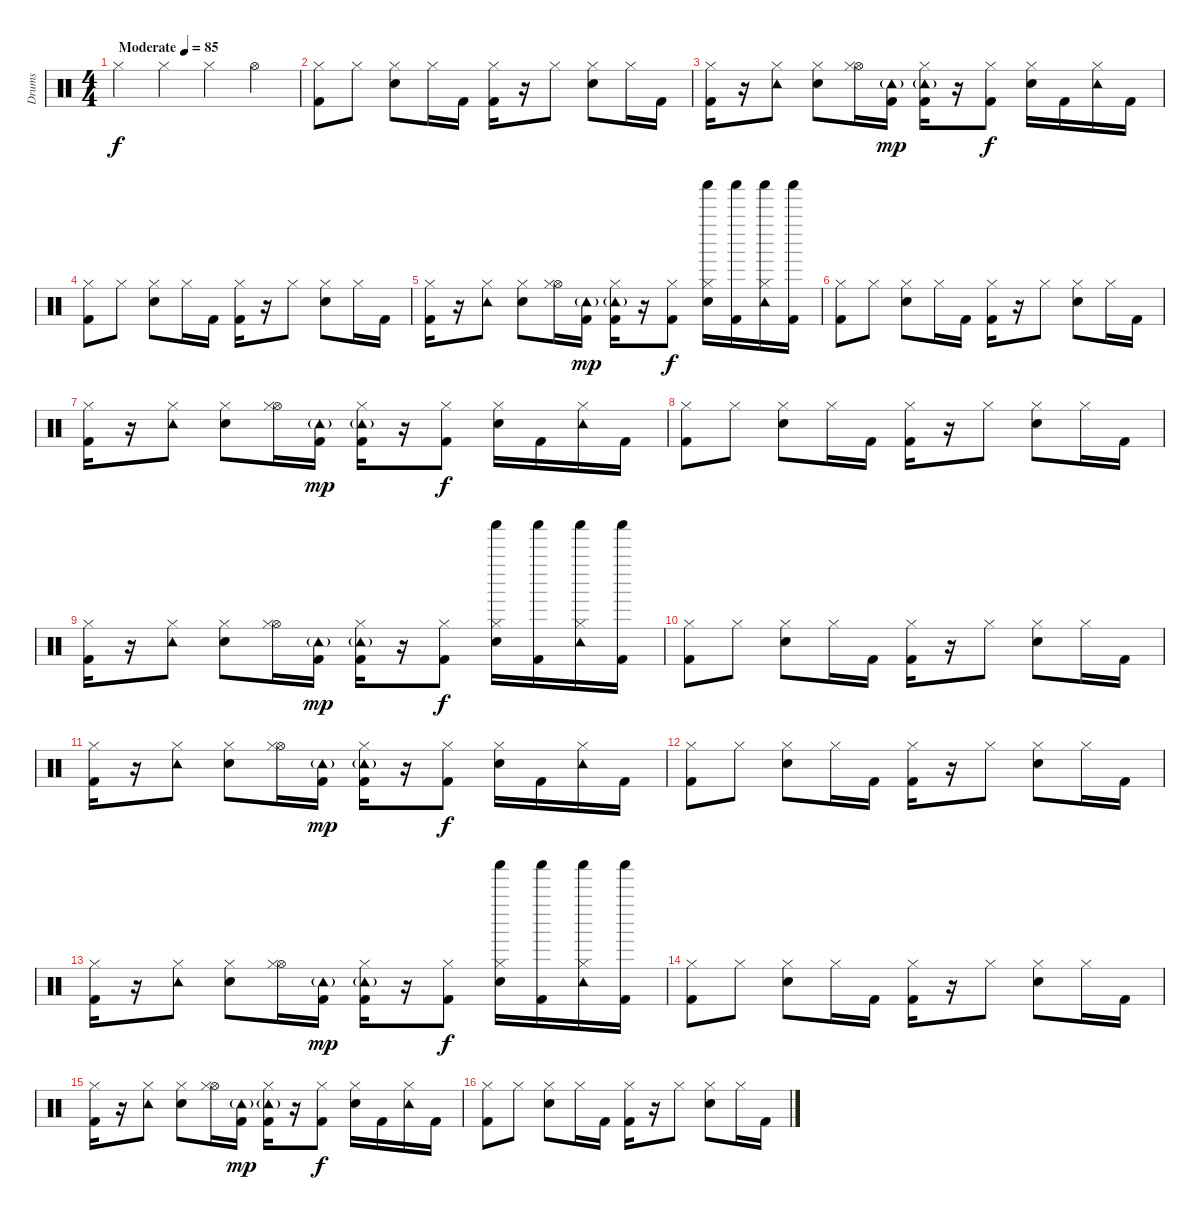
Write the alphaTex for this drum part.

\track ("Drums" "Drums") {instrument percussion}
\staff {score}
\articulation defaults
\ts (4 4)
\tempo (85 "Moderate")
\clef neutral
\ks c "Hi-Hat (closed)".4{dy f} "Hi-Hat (closed)".4 "Hi-Hat (closed)".4 "Hi-Hat (open)".4
|
("Hi-Hat (closed)" "Kick (hit) 2").8 "Hi-Hat (closed)".8 ("Hi-Hat (closed)" "Snare (hit) 2").8 "Hi-Hat (closed)".16 "Kick (hit) 2".16 ("Hi-Hat (closed)" "Kick (hit) 2").16 r.16 "Hi-Hat (closed)".8 ("Hi-Hat (closed)" "Snare (hit) 2").8 "Hi-Hat (closed)".16 "Kick (hit) 2".16 |
("Hi-Hat (closed)" "Kick (hit) 2").16 r.16 ("Tambourine (hit)" "Hi-Hat (closed)").8 ("Hi-Hat (closed)" "Snare (hit) 2").8 ("Hi-Hat (open)" "Hi-Hat (closed)").16 ("Tambourine (hit)"{g} "Kick (hit) 2").16{dy mp} ("Tambourine (hit)"{g} "Hi-Hat (closed)" "Kick (hit) 2").16 r.16 ("Hi-Hat (closed)" "Kick (hit) 2").8{dy f} ("Hi-Hat (closed)" "Snare (hit) 2").16 "Kick (hit) 2".16 ("Tambourine (hit)" "Hi-Hat (closed)").16 "Kick (hit) 2".16 |
("Hi-Hat (closed)" "Kick (hit) 2").8 "Hi-Hat (closed)".8 ("Hi-Hat (closed)" "Snare (hit) 2").8 "Hi-Hat (closed)".16 "Kick (hit) 2".16 ("Hi-Hat (closed)" "Kick (hit) 2").16 r.16 "Hi-Hat (closed)".8 ("Hi-Hat (closed)" "Snare (hit) 2").8 "Hi-Hat (closed)".16 "Kick (hit) 2".16 |
("Hi-Hat (closed)" "Kick (hit) 2").16 r.16 ("Tambourine (hit)" "Hi-Hat (closed)").8 ("Hi-Hat (closed)" "Snare (hit) 2").8 ("Hi-Hat (open)" "Hi-Hat (closed)").16 ("Tambourine (hit)"{g} "Kick (hit) 2").16{dy mp} ("Tambourine (hit)"{g} "Hi-Hat (closed)" "Kick (hit) 2").16 r.16 ("Hi-Hat (closed)" "Kick (hit) 2").8{dy f} ("Shaker (hit)" "Hi-Hat (closed)" "Snare (hit) 2").16 ("Shaker (hit)" "Kick (hit) 2").16 ("Tambourine (hit)" "Hi-Hat (closed)" "Shaker (hit)").16 ("Shaker (hit)" "Kick (hit) 2").16 |
("Hi-Hat (closed)" "Kick (hit) 2").8 "Hi-Hat (closed)".8 ("Hi-Hat (closed)" "Snare (hit) 2").8 "Hi-Hat (closed)".16 "Kick (hit) 2".16 ("Hi-Hat (closed)" "Kick (hit) 2").16 r.16 "Hi-Hat (closed)".8 ("Hi-Hat (closed)" "Snare (hit) 2").8 "Hi-Hat (closed)".16 "Kick (hit) 2".16 |
("Hi-Hat (closed)" "Kick (hit) 2").16 r.16 ("Tambourine (hit)" "Hi-Hat (closed)").8 ("Hi-Hat (closed)" "Snare (hit) 2").8 ("Hi-Hat (open)" "Hi-Hat (closed)").16 ("Tambourine (hit)"{g} "Kick (hit) 2").16{dy mp} ("Tambourine (hit)"{g} "Hi-Hat (closed)" "Kick (hit) 2").16 r.16 ("Hi-Hat (closed)" "Kick (hit) 2").8{dy f} ("Hi-Hat (closed)" "Snare (hit) 2").16 "Kick (hit) 2".16 ("Tambourine (hit)" "Hi-Hat (closed)").16 "Kick (hit) 2".16 |
("Hi-Hat (closed)" "Kick (hit) 2").8 "Hi-Hat (closed)".8 ("Hi-Hat (closed)" "Snare (hit) 2").8 "Hi-Hat (closed)".16 "Kick (hit) 2".16 ("Hi-Hat (closed)" "Kick (hit) 2").16 r.16 "Hi-Hat (closed)".8 ("Hi-Hat (closed)" "Snare (hit) 2").8 "Hi-Hat (closed)".16 "Kick (hit) 2".16 |
("Hi-Hat (closed)" "Kick (hit) 2").16 r.16 ("Tambourine (hit)" "Hi-Hat (closed)").8 ("Hi-Hat (closed)" "Snare (hit) 2").8 ("Hi-Hat (open)" "Hi-Hat (closed)").16 ("Tambourine (hit)"{g} "Kick (hit) 2").16{dy mp} ("Tambourine (hit)"{g} "Hi-Hat (closed)" "Kick (hit) 2").16 r.16 ("Hi-Hat (closed)" "Kick (hit) 2").8{dy f} ("Shaker (hit)" "Hi-Hat (closed)" "Snare (hit) 2").16 ("Shaker (hit)" "Kick (hit) 2").16 ("Tambourine (hit)" "Hi-Hat (closed)" "Shaker (hit)").16 ("Shaker (hit)" "Kick (hit) 2").16 |
("Hi-Hat (closed)" "Kick (hit) 2").8 "Hi-Hat (closed)".8 ("Hi-Hat (closed)" "Snare (hit) 2").8 "Hi-Hat (closed)".16 "Kick (hit) 2".16 ("Hi-Hat (closed)" "Kick (hit) 2").16 r.16 "Hi-Hat (closed)".8 ("Hi-Hat (closed)" "Snare (hit) 2").8 "Hi-Hat (closed)".16 "Kick (hit) 2".16 |
("Hi-Hat (closed)" "Kick (hit) 2").16 r.16 ("Tambourine (hit)" "Hi-Hat (closed)").8 ("Hi-Hat (closed)" "Snare (hit) 2").8 ("Hi-Hat (open)" "Hi-Hat (closed)").16 ("Tambourine (hit)"{g} "Kick (hit) 2").16{dy mp} ("Tambourine (hit)"{g} "Hi-Hat (closed)" "Kick (hit) 2").16 r.16 ("Hi-Hat (closed)" "Kick (hit) 2").8{dy f} ("Hi-Hat (closed)" "Snare (hit) 2").16 "Kick (hit) 2".16 ("Tambourine (hit)" "Hi-Hat (closed)").16 "Kick (hit) 2".16 |
("Hi-Hat (closed)" "Kick (hit) 2").8 "Hi-Hat (closed)".8 ("Hi-Hat (closed)" "Snare (hit) 2").8 "Hi-Hat (closed)".16 "Kick (hit) 2".16 ("Hi-Hat (closed)" "Kick (hit) 2").16 r.16 "Hi-Hat (closed)".8 ("Hi-Hat (closed)" "Snare (hit) 2").8 "Hi-Hat (closed)".16 "Kick (hit) 2".16 |
("Hi-Hat (closed)" "Kick (hit) 2").16 r.16 ("Tambourine (hit)" "Hi-Hat (closed)").8 ("Hi-Hat (closed)" "Snare (hit) 2").8 ("Hi-Hat (open)" "Hi-Hat (closed)").16 ("Tambourine (hit)"{g} "Kick (hit) 2").16{dy mp} ("Tambourine (hit)"{g} "Hi-Hat (closed)" "Kick (hit) 2").16 r.16 ("Hi-Hat (closed)" "Kick (hit) 2").8{dy f} ("Shaker (hit)" "Hi-Hat (closed)" "Snare (hit) 2").16 ("Shaker (hit)" "Kick (hit) 2").16 ("Tambourine (hit)" "Hi-Hat (closed)" "Shaker (hit)").16 ("Shaker (hit)" "Kick (hit) 2").16 |
("Hi-Hat (closed)" "Kick (hit) 2").8 "Hi-Hat (closed)".8 ("Hi-Hat (closed)" "Snare (hit) 2").8 "Hi-Hat (closed)".16 "Kick (hit) 2".16 ("Hi-Hat (closed)" "Kick (hit) 2").16 r.16 "Hi-Hat (closed)".8 ("Hi-Hat (closed)" "Snare (hit) 2").8 "Hi-Hat (closed)".16 "Kick (hit) 2".16 |
("Hi-Hat (closed)" "Kick (hit) 2").16 r.16 ("Tambourine (hit)" "Hi-Hat (closed)").8 ("Hi-Hat (closed)" "Snare (hit) 2").8 ("Hi-Hat (open)" "Hi-Hat (closed)").16 ("Tambourine (hit)"{g} "Kick (hit) 2").16{dy mp} ("Tambourine (hit)"{g} "Hi-Hat (closed)" "Kick (hit) 2").16 r.16 ("Hi-Hat (closed)" "Kick (hit) 2").8{dy f} ("Hi-Hat (closed)" "Snare (hit) 2").16 "Kick (hit) 2".16 ("Tambourine (hit)" "Hi-Hat (closed)").16 "Kick (hit) 2".16 |
("Hi-Hat (closed)" "Kick (hit) 2").8 "Hi-Hat (closed)".8 ("Hi-Hat (closed)" "Snare (hit) 2").8 "Hi-Hat (closed)".16 "Kick (hit) 2".16 ("Hi-Hat (closed)" "Kick (hit) 2").16 r.16 "Hi-Hat (closed)".8 ("Hi-Hat (closed)" "Snare (hit) 2").8 "Hi-Hat (closed)".16 "Kick (hit) 2".16
